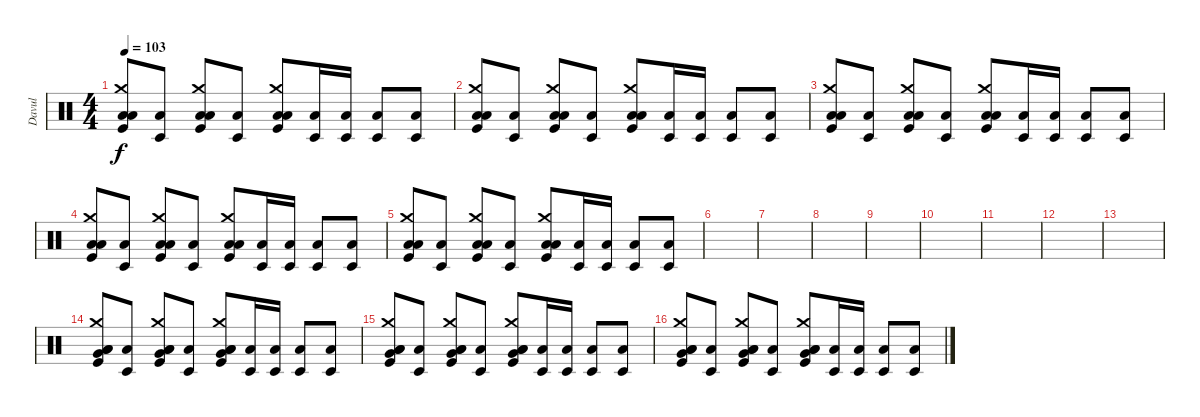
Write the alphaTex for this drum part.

\track ("Davul" "Davul") {instrument percussion}
\staff {score}
\articulation defaults
\ts (4 4)
\tempo 103
\clef neutral
\ks c
("Kick (hit)" "Low Tom (hit)" "Low Floor Tom (hit)" "Crash medium (hit)").8{dy f} ("Timbale low (hit)" "Low Floor Tom (hit)").8 ("Kick (hit)" "Low Tom (hit)" "Low Floor Tom (hit)" "Crash medium (hit)").8 ("Timbale low (hit)" "Low Floor Tom (hit)").8 ("Kick (hit)" "Low Tom (hit)" "Low Floor Tom (hit)" "Crash medium (hit)").8 ("Timbale low (hit)" "Low Floor Tom (hit)").16 ("Timbale low (hit)" "Low Floor Tom (hit)").16 ("Timbale low (hit)" "Low Floor Tom (hit)").8 ("Timbale low (hit)" "Low Floor Tom (hit)").8 |
("Kick (hit)" "Low Tom (hit)" "Low Floor Tom (hit)" "Crash medium (hit)").8 ("Timbale low (hit)" "Low Floor Tom (hit)").8 ("Kick (hit)" "Low Tom (hit)" "Low Floor Tom (hit)" "Crash medium (hit)").8 ("Timbale low (hit)" "Low Floor Tom (hit)").8 ("Kick (hit)" "Low Tom (hit)" "Low Floor Tom (hit)" "Crash medium (hit)").8 ("Timbale low (hit)" "Low Floor Tom (hit)").16 ("Timbale low (hit)" "Low Floor Tom (hit)").16 ("Timbale low (hit)" "Low Floor Tom (hit)").8 ("Timbale low (hit)" "Low Floor Tom (hit)").8 |
("Kick (hit)" "Low Tom (hit)" "Low Floor Tom (hit)" "Crash medium (hit)").8 ("Timbale low (hit)" "Low Floor Tom (hit)").8 ("Kick (hit)" "Low Tom (hit)" "Low Floor Tom (hit)" "Crash medium (hit)").8 ("Timbale low (hit)" "Low Floor Tom (hit)").8 ("Kick (hit)" "Low Tom (hit)" "Low Floor Tom (hit)" "Crash medium (hit)").8 ("Timbale low (hit)" "Low Floor Tom (hit)").16 ("Timbale low (hit)" "Low Floor Tom (hit)").16 ("Timbale low (hit)" "Low Floor Tom (hit)").8 ("Timbale low (hit)" "Low Floor Tom (hit)").8 |
("Kick (hit)" "Low Tom (hit)" "Low Floor Tom (hit)" "Crash medium (hit)").8 ("Timbale low (hit)" "Low Floor Tom (hit)").8 ("Kick (hit)" "Low Tom (hit)" "Low Floor Tom (hit)" "Crash medium (hit)").8 ("Timbale low (hit)" "Low Floor Tom (hit)").8 ("Kick (hit)" "Low Tom (hit)" "Low Floor Tom (hit)" "Crash medium (hit)").8 ("Timbale low (hit)" "Low Floor Tom (hit)").16 ("Timbale low (hit)" "Low Floor Tom (hit)").16 ("Timbale low (hit)" "Low Floor Tom (hit)").8 ("Timbale low (hit)" "Low Floor Tom (hit)").8 |
("Kick (hit)" "Low Tom (hit)" "Low Floor Tom (hit)" "Crash medium (hit)").8 ("Timbale low (hit)" "Low Floor Tom (hit)").8 ("Kick (hit)" "Low Tom (hit)" "Low Floor Tom (hit)" "Crash medium (hit)").8 ("Timbale low (hit)" "Low Floor Tom (hit)").8 ("Kick (hit)" "Low Tom (hit)" "Low Floor Tom (hit)" "Crash medium (hit)").8 ("Timbale low (hit)" "Low Floor Tom (hit)").16 ("Timbale low (hit)" "Low Floor Tom (hit)").16 ("Timbale low (hit)" "Low Floor Tom (hit)").8 ("Timbale low (hit)" "Low Floor Tom (hit)").8 |
|
|
|
|
|
|
|
|
("Kick (hit)" "Low Tom (hit)" "Low Floor Tom (hit)" "Very Low Tom (hit)" "Crash medium (hit)").8 ("Timbale low (hit)" "Low Floor Tom (hit)").8 ("Kick (hit)" "Low Tom (hit)" "Low Floor Tom (hit)" "Very Low Tom (hit)" "Crash medium (hit)").8 ("Timbale low (hit)" "Low Floor Tom (hit)").8 ("Kick (hit)" "Low Tom (hit)" "Low Floor Tom (hit)" "Very Low Tom (hit)" "Crash medium (hit)").8 ("Timbale low (hit)" "Low Floor Tom (hit)").16 ("Timbale low (hit)" "Low Floor Tom (hit)").16 ("Timbale low (hit)" "Low Floor Tom (hit)").8 ("Timbale low (hit)" "Low Floor Tom (hit)").8 |
("Kick (hit)" "Low Tom (hit)" "Low Floor Tom (hit)" "Very Low Tom (hit)" "Crash medium (hit)").8 ("Timbale low (hit)" "Low Floor Tom (hit)").8 ("Kick (hit)" "Low Tom (hit)" "Low Floor Tom (hit)" "Very Low Tom (hit)" "Crash medium (hit)").8 ("Timbale low (hit)" "Low Floor Tom (hit)").8 ("Kick (hit)" "Low Tom (hit)" "Low Floor Tom (hit)" "Very Low Tom (hit)" "Crash medium (hit)").8 ("Timbale low (hit)" "Low Floor Tom (hit)").16 ("Timbale low (hit)" "Low Floor Tom (hit)").16 ("Timbale low (hit)" "Low Floor Tom (hit)").8 ("Timbale low (hit)" "Low Floor Tom (hit)").8 |
("Kick (hit)" "Low Tom (hit)" "Low Floor Tom (hit)" "Very Low Tom (hit)" "Crash medium (hit)").8 ("Timbale low (hit)" "Low Floor Tom (hit)").8 ("Kick (hit)" "Low Tom (hit)" "Low Floor Tom (hit)" "Very Low Tom (hit)" "Crash medium (hit)").8 ("Timbale low (hit)" "Low Floor Tom (hit)").8 ("Kick (hit)" "Low Tom (hit)" "Low Floor Tom (hit)" "Very Low Tom (hit)" "Crash medium (hit)").8 ("Timbale low (hit)" "Low Floor Tom (hit)").16 ("Timbale low (hit)" "Low Floor Tom (hit)").16 ("Timbale low (hit)" "Low Floor Tom (hit)").8 ("Timbale low (hit)" "Low Floor Tom (hit)").8
